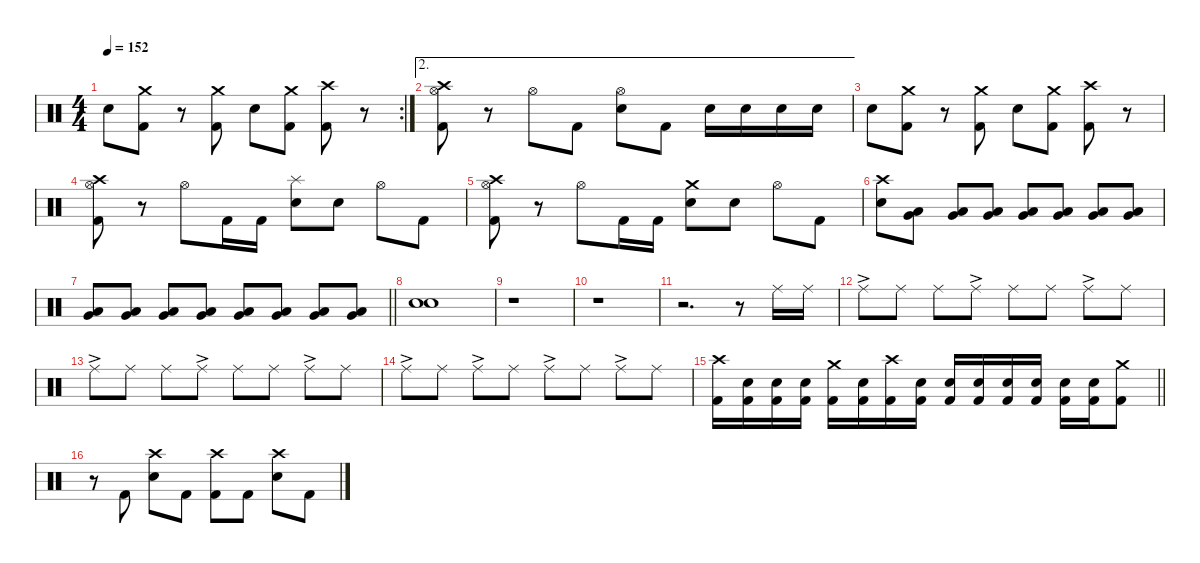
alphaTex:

\defaultSystemsLayout 4
\hideDynamics
\bracketExtendMode nobrackets
\singleTrackTrackNamePolicy hidden
\multiTrackTrackNamePolicy hidden
\firstSystemTrackNameMode fullname
\firstSystemTrackNameOrientation horizontal
\otherSystemsTrackNameOrientation horizontal
\track ("Percussion" "drm.") {defaultSystemsLayout 4 instrument percussion}
\staff {score}
\articulation defaults
\rc 2
\ts (4 4)
\tempo 152
\clef neutral
\ks c "Snare (hit) 2".8{dy f beam Down}
("Crash medium (hit)" "Kick (hit) 2").8{beam Down} r.8{beam Down} ("Crash medium (hit)" "Kick (hit) 2").8{beam Down} "Snare (hit) 2".8{beam Down} ("Crash medium (hit)" "Kick (hit) 2").8{beam Down} ("Crash high (hit)" "Kick (hit) 2").8{beam Down} r.8{beam Down} |
\ae 2
("Crash high (hit)" "Hi-Hat (open)" "Kick (hit) 2").8{beam Down} r.8{beam Down} "Hi-Hat (open)".8{beam Down} "Kick (hit) 2".8{beam Down} ("Snare (hit) 2" "Hi-Hat (open)").8{beam Down} "Kick (hit) 2".8{beam Down} "Snare (hit) 2".16{beam Down} "Snare (hit) 2".16{beam Down} "Snare (hit) 2".16{beam Down} "Snare (hit) 2".16{beam Down} |
"Snare (hit) 2".8{beam Down} ("Crash medium (hit)" "Kick (hit) 2").8{beam Down} r.8{beam Down} ("Crash medium (hit)" "Kick (hit) 2").8{beam Down} "Snare (hit) 2".8{beam Down} ("Crash medium (hit)" "Kick (hit) 2").8{beam Down} ("Crash high (hit)" "Kick (hit) 2").8{beam Down} r.8{beam Down} |
("Crash high (hit)" "Hi-Hat (open)" "Kick (hit) 2").8{beam Down} r.8{beam Down} "Hi-Hat (open)".8{beam Down} "Kick (hit) 2".16{beam Down} "Kick (hit) 2".16{beam Down} ("Splash (hit)" "Snare (hit) 2").8{beam Down} "Snare (hit) 2".8{beam Down} "Hi-Hat (open)".8{beam Down} "Kick (hit) 2".8{beam Down} |
("Crash high (hit)" "Hi-Hat (open)" "Kick (hit) 2").8{beam Down} r.8{beam Down} "Hi-Hat (open)".8{beam Down} "Kick (hit) 2".16{beam Down} "Kick (hit) 2".16{beam Down} ("Crash medium (hit)" "Snare (hit) 2").8{beam Down} "Snare (hit) 2".8{beam Down} "Hi-Hat (open)".8{beam Down} "Kick (hit) 2".8{beam Down} |
("Crash high (hit)" "Snare (hit) 2").8{beam Down} ("Low Tom (hit)" "Very Low Tom (hit)").8{beam Down} ("Low Tom (hit)" "Very Low Tom (hit)").8{beam Up} ("Low Tom (hit)" "Very Low Tom (hit)").8{beam Up} ("Low Tom (hit)" "Very Low Tom (hit)").8{beam Up} ("Low Tom (hit)" "Very Low Tom (hit)").8{beam Up} ("Low Tom (hit)" "Very Low Tom (hit)").8{beam Up} ("Low Tom (hit)" "Very Low Tom (hit)").8{beam Up} |
\barLineRight lightlight
("Low Tom (hit)" "Very Low Tom (hit)").8{beam Up} ("Low Tom (hit)" "Very Low Tom (hit)").8{beam Up} ("Low Tom (hit)" "Very Low Tom (hit)").8{beam Up} ("Low Tom (hit)" "Very Low Tom (hit)").8{beam Up} ("Low Tom (hit)" "Very Low Tom (hit)").8{beam Up} ("Low Tom (hit)" "Very Low Tom (hit)").8{beam Up} ("Low Tom (hit)" "Very Low Tom (hit)").8{beam Up} ("Low Tom (hit)" "Very Low Tom (hit)").8{beam Up} |
("Snare (hit) 2" "Snare (hit) 2").1{beam Down} |
r.1{beam Down} |
r.1{beam Down} |
r.2{d beam Down} r.8{beam Down} "Ride (middle)".16{beam Down} "Ride (middle)".16{beam Down} |
"Ride (middle)"{ac}.8{beam Down} "Ride (middle)".8{beam Down} "Ride (middle)".8{beam Down} "Ride (middle)"{ac}.8{beam Down} "Ride (middle)".8{beam Down} "Ride (middle)".8{beam Down} "Ride (middle)"{ac}.8{beam Down} "Ride (middle)".8{beam Down} |
"Ride (middle)"{ac}.8{beam Down} "Ride (middle)".8{beam Down} "Ride (middle)".8{beam Down} "Ride (middle)"{ac}.8{beam Down} "Ride (middle)".8{beam Down} "Ride (middle)".8{beam Down} "Ride (middle)"{ac}.8{beam Down} "Ride (middle)".8{beam Down} |
"Ride (middle)"{ac}.8{beam Down} "Ride (middle)".8{beam Down} "Ride (middle)"{ac}.8{beam Down} "Ride (middle)".8{beam Down} "Ride (middle)"{ac}.8{beam Down} "Ride (middle)".8{beam Down} "Ride (middle)"{ac}.8{beam Down} "Ride (middle)".8{beam Down} |
\barLineRight lightlight
("Crash high (hit)" "Kick (hit) 2").16{beam Down} ("Snare (hit) 2" "Kick (hit) 2").16{beam Down} ("Snare (hit) 2" "Kick (hit) 2").16{beam Down} ("Snare (hit) 2" "Kick (hit) 2").16{beam Down} ("Crash medium (hit)" "Kick (hit) 2").16{beam Down} ("Snare (hit) 2" "Kick (hit) 2").16{beam Down} ("Crash high (hit)" "Kick (hit) 2").16{beam Down} ("Snare (hit) 2" "Kick (hit) 2").16{beam Down} ("Snare (hit) 2" "Kick (hit) 2").16{beam Up} ("Snare (hit) 2" "Kick (hit) 2").16{beam Up} ("Snare (hit) 2" "Kick (hit) 2").16{beam Up} ("Snare (hit) 2" "Kick (hit) 2").16{beam Up} ("Snare (hit) 2" "Kick (hit) 2").16{beam Down} ("Snare (hit) 2" "Kick (hit) 2").16{beam Down} ("Crash medium (hit)" "Kick (hit) 2").8{beam Down} |
r.8{beam Down} "Kick (hit) 2".8{beam Up} ("Crash high (hit)" "Snare (hit) 2").8{beam Down} "Kick (hit) 2".8{beam Down} ("Crash high (hit)" "Kick (hit) 2").8{beam Down} "Kick (hit) 2".8{beam Down} ("Crash high (hit)" "Snare (hit) 2").8{beam Down} "Kick (hit) 2".8{beam Down}
